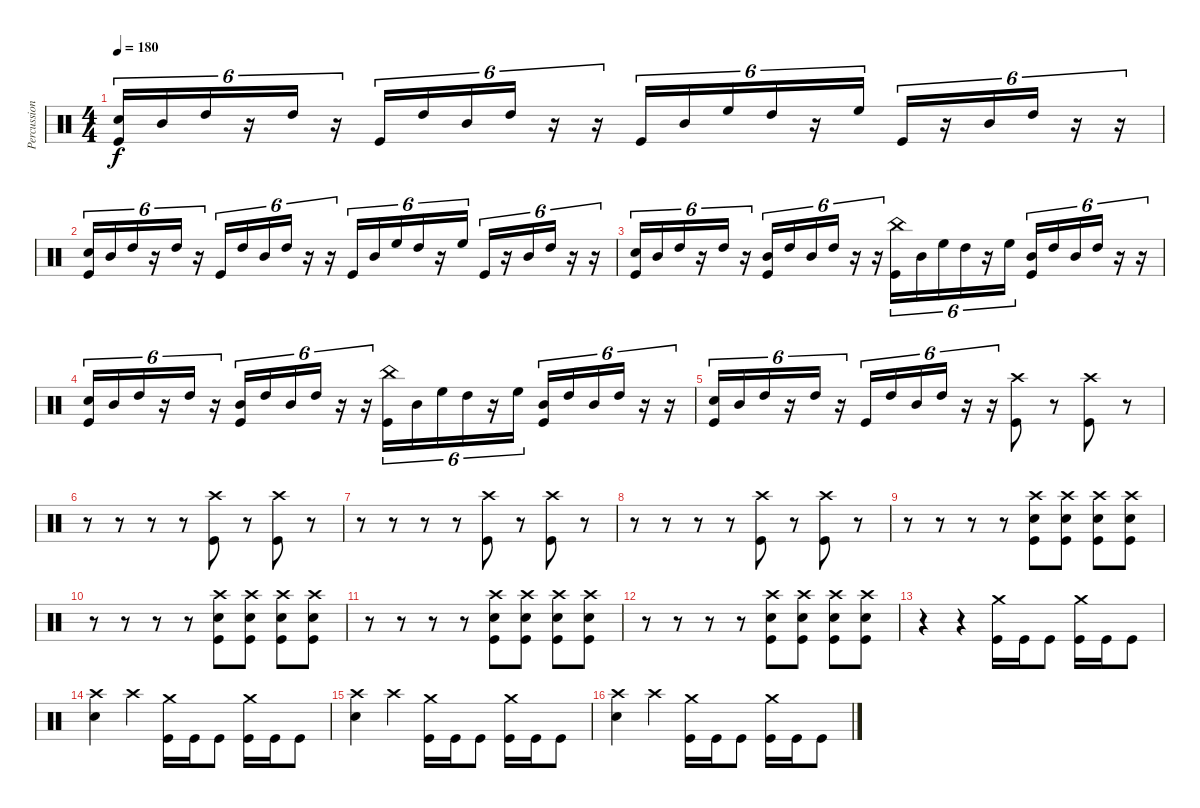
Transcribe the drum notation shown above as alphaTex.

\track ("Percussion" "Percussion") {instrument percussion}
\staff {score}
\articulation defaults
\ts (4 4)
\tempo 180
\clef neutral
\ks c
("Snare (hit) 2" "Kick (hit)").16{tu (6 4) dy f} "Mid Tom (hit)".16{tu (6 4)} "High Tom (hit)".16{tu (6 4)} r.16{tu (6 4)} "High Tom (hit)".16{tu (6 4)} r.16{tu (6 4)} "Kick (hit)".16{tu (6 4)} "High Tom (hit)".16{tu (6 4)} "Mid Tom (hit)".16{tu (6 4)} "High Tom (hit)".16{tu (6 4)} r.16{tu (6 4)} r.16{tu (6 4)} "Kick (hit)".16{tu (6 4)} "Mid Tom (hit)".16{tu (6 4)} "High Floor Tom (hit)".16{tu (6 4)} "High Tom (hit)".16{tu (6 4)} r.16{tu (6 4)} "High Floor Tom (hit)".16{tu (6 4)} "Kick (hit)".16{tu (6 4)} r.16{tu (6 4)} "Mid Tom (hit)".16{tu (6 4)} "High Tom (hit)".16{tu (6 4)} r.16{tu (6 4)} r.16{tu (6 4)} |
("Snare (hit) 2" "Kick (hit)").16{tu (6 4)} "Mid Tom (hit)".16{tu (6 4)} "High Tom (hit)".16{tu (6 4)} r.16{tu (6 4)} "High Tom (hit)".16{tu (6 4)} r.16{tu (6 4)} "Kick (hit)".16{tu (6 4)} "High Tom (hit)".16{tu (6 4)} "Mid Tom (hit)".16{tu (6 4)} "High Tom (hit)".16{tu (6 4)} r.16{tu (6 4)} r.16{tu (6 4)} "Kick (hit)".16{tu (6 4)} "Mid Tom (hit)".16{tu (6 4)} "High Floor Tom (hit)".16{tu (6 4)} "High Tom (hit)".16{tu (6 4)} r.16{tu (6 4)} "High Floor Tom (hit)".16{tu (6 4)} "Kick (hit)".16{tu (6 4)} r.16{tu (6 4)} "Mid Tom (hit)".16{tu (6 4)} "High Tom (hit)".16{tu (6 4)} r.16{tu (6 4)} r.16{tu (6 4)} |
("Snare (hit) 2" "Kick (hit)").16{tu (6 4)} "Mid Tom (hit)".16{tu (6 4)} "High Tom (hit)".16{tu (6 4)} r.16{tu (6 4)} "High Tom (hit)".16{tu (6 4)} r.16{tu (6 4)} ("Mid Tom (hit)" "Kick (hit)").16{tu (6 4)} "High Tom (hit)".16{tu (6 4)} "Mid Tom (hit)".16{tu (6 4)} "High Tom (hit)".16{tu (6 4)} r.16{tu (6 4)} r.16{tu (6 4)} ("China (hit)" "Kick (hit)").16{tu (6 4)} "Mid Tom (hit)".16{tu (6 4)} "High Floor Tom (hit)".16{tu (6 4)} "High Tom (hit)".16{tu (6 4)} r.16{tu (6 4)} "High Floor Tom (hit)".16{tu (6 4)} ("Mid Tom (hit)" "Kick (hit)").16{tu (6 4)} "High Tom (hit)".16{tu (6 4)} "Mid Tom (hit)".16{tu (6 4)} "High Tom (hit)".16{tu (6 4)} r.16{tu (6 4)} r.16{tu (6 4)} |
("Snare (hit) 2" "Kick (hit)").16{tu (6 4)} "Mid Tom (hit)".16{tu (6 4)} "High Tom (hit)".16{tu (6 4)} r.16{tu (6 4)} "High Tom (hit)".16{tu (6 4)} r.16{tu (6 4)} ("Mid Tom (hit)" "Kick (hit)").16{tu (6 4)} "High Tom (hit)".16{tu (6 4)} "Mid Tom (hit)".16{tu (6 4)} "High Tom (hit)".16{tu (6 4)} r.16{tu (6 4)} r.16{tu (6 4)} ("China (hit)" "Kick (hit)").16{tu (6 4)} "Mid Tom (hit)".16{tu (6 4)} "High Floor Tom (hit)".16{tu (6 4)} "High Tom (hit)".16{tu (6 4)} r.16{tu (6 4)} "High Floor Tom (hit)".16{tu (6 4)} ("Mid Tom (hit)" "Kick (hit)").16{tu (6 4)} "High Tom (hit)".16{tu (6 4)} "Mid Tom (hit)".16{tu (6 4)} "High Tom (hit)".16{tu (6 4)} r.16{tu (6 4)} r.16{tu (6 4)} |
("Snare (hit) 2" "Kick (hit)").16{tu (6 4)} "Mid Tom (hit)".16{tu (6 4)} "High Tom (hit)".16{tu (6 4)} r.16{tu (6 4)} "High Tom (hit)".16{tu (6 4)} r.16{tu (6 4)} "Kick (hit)".16{tu (6 4)} "High Tom (hit)".16{tu (6 4)} "Mid Tom (hit)".16{tu (6 4)} "High Tom (hit)".16{tu (6 4)} r.16{tu (6 4)} r.16{tu (6 4)} ("Crash high (hit)" "Kick (hit)").8{volume 16} r.8 ("Crash high (hit)" "Kick (hit)").8 r.8 |
r.8 r.8 r.8 r.8 ("Crash high (hit)" "Kick (hit)").8 r.8 ("Crash high (hit)" "Kick (hit)").8 r.8 |
r.8 r.8 r.8 r.8 ("Crash high (hit)" "Kick (hit)").8 r.8 ("Crash high (hit)" "Kick (hit)").8 r.8 |
r.8 r.8 r.8 r.8 ("Crash high (hit)" "Kick (hit)").8 r.8 ("Crash high (hit)" "Kick (hit)").8 r.8 |
r.8 r.8 r.8 r.8 ("Crash high (hit)" "Snare (hit) 2" "Kick (hit)").8 ("Crash high (hit)" "Snare (hit) 2" "Kick (hit)").8 ("Crash high (hit)" "Snare (hit) 2" "Kick (hit)").8 ("Crash high (hit)" "Snare (hit) 2" "Kick (hit)").8 |
r.8 r.8 r.8 r.8 ("Crash high (hit)" "Snare (hit) 2" "Kick (hit)").8 ("Crash high (hit)" "Snare (hit) 2" "Kick (hit)").8 ("Crash high (hit)" "Snare (hit) 2" "Kick (hit)").8 ("Crash high (hit)" "Snare (hit) 2" "Kick (hit)").8 |
r.8 r.8 r.8 r.8 ("Crash high (hit)" "Snare (hit) 2" "Kick (hit)").8 ("Crash high (hit)" "Snare (hit) 2" "Kick (hit)").8 ("Crash high (hit)" "Snare (hit) 2" "Kick (hit)").8 ("Crash high (hit)" "Snare (hit) 2" "Kick (hit)").8 |
r.8 r.8 r.8 r.8 ("Crash high (hit)" "Snare (hit) 2" "Kick (hit)").8 ("Crash high (hit)" "Snare (hit) 2" "Kick (hit)").8 ("Crash high (hit)" "Snare (hit) 2" "Kick (hit)").8 ("Crash high (hit)" "Snare (hit) 2" "Kick (hit)").8 |
r.4 r.4 ("Crash medium (hit)" "Kick (hit)").16 "Kick (hit)".16 "Kick (hit)".8 ("Crash medium (hit)" "Kick (hit)").16 "Kick (hit)".16 "Kick (hit)".8 |
("Crash high (hit)" "Snare (hit) 2").4 "Crash high (hit)".4 ("Crash medium (hit)" "Kick (hit)").16 "Kick (hit)".16 "Kick (hit)".8 ("Crash medium (hit)" "Kick (hit)").16 "Kick (hit)".16 "Kick (hit)".8 |
("Crash high (hit)" "Snare (hit) 2").4 "Crash high (hit)".4 ("Crash medium (hit)" "Kick (hit)").16 "Kick (hit)".16 "Kick (hit)".8 ("Crash medium (hit)" "Kick (hit)").16 "Kick (hit)".16 "Kick (hit)".8 |
("Crash high (hit)" "Snare (hit) 2").4 "Crash high (hit)".4 ("Crash medium (hit)" "Kick (hit)").16 "Kick (hit)".16 "Kick (hit)".8 ("Crash medium (hit)" "Kick (hit)").16 "Kick (hit)".16 "Kick (hit)".8
